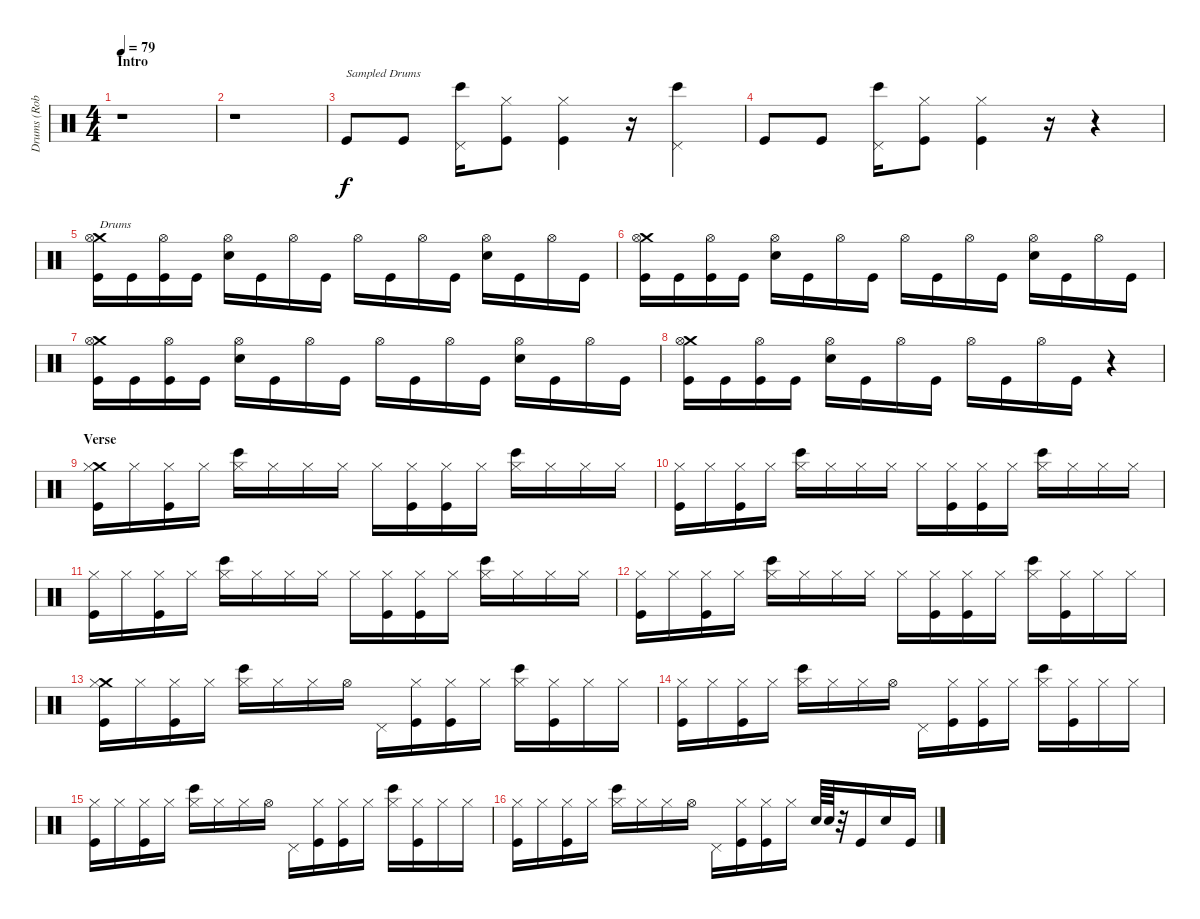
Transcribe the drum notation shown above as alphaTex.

\track ("Drums (Rob Bourdon)" "Drums (Rob") {instrument percussion}
\staff {score}
\articulation defaults
\ts (4 4)
\section ("" "Intro")
\tempo 79
\clef neutral
\ks c
r.1{dy f} |
r.1 |
"Kick (hit)".8{txt "Sampled Drums"} "Kick (hit)".8 ("Pedal Hi-Hat (hit)" "Bongo High (hit)").16 ("Hi-Hat (closed)" "Kick (hit)").8 ("Hi-Hat (closed)" "Kick (hit)").4 r.16 ("Pedal Hi-Hat (hit)" "Bongo High (hit)").4 |
"Kick (hit)".8 "Kick (hit)".8 ("Pedal Hi-Hat (hit)" "Bongo High (hit)").16 ("Hi-Hat (closed)" "Kick (hit)").8 ("Hi-Hat (closed)" "Kick (hit)").4 r.16 r.4 |
("Crash medium (hit)" "Hi-Hat (open)" "Kick (hit)").16{txt "Drums"} "Kick (hit)".16 ("Hi-Hat (open)" "Kick (hit)").16 "Kick (hit)".16 ("Hi-Hat (open)" "Electric Snare (hit)").16 "Kick (hit)".16 "Hi-Hat (open)".16 "Kick (hit)".16 "Hi-Hat (open)".16 "Kick (hit)".16 "Hi-Hat (open)".16 "Kick (hit)".16 ("Hi-Hat (open)" "Electric Snare (hit)").16 "Kick (hit)".16 "Hi-Hat (open)".16 "Kick (hit)".16 |
("Crash medium (hit)" "Hi-Hat (open)" "Kick (hit)").16 "Kick (hit)".16 ("Hi-Hat (open)" "Kick (hit)").16 "Kick (hit)".16 ("Hi-Hat (open)" "Electric Snare (hit)").16 "Kick (hit)".16 "Hi-Hat (open)".16 "Kick (hit)".16 "Hi-Hat (open)".16 "Kick (hit)".16 "Hi-Hat (open)".16 "Kick (hit)".16 ("Hi-Hat (open)" "Electric Snare (hit)").16 "Kick (hit)".16 "Hi-Hat (open)".16 "Kick (hit)".16 |
("Crash medium (hit)" "Hi-Hat (open)" "Kick (hit)").16 "Kick (hit)".16 ("Hi-Hat (open)" "Kick (hit)").16 "Kick (hit)".16 ("Hi-Hat (open)" "Electric Snare (hit)").16 "Kick (hit)".16 "Hi-Hat (open)".16 "Kick (hit)".16 "Hi-Hat (open)".16 "Kick (hit)".16 "Hi-Hat (open)".16 "Kick (hit)".16 ("Hi-Hat (open)" "Electric Snare (hit)").16 "Kick (hit)".16 "Hi-Hat (open)".16 "Kick (hit)".16 |
("Crash medium (hit)" "Hi-Hat (open)" "Kick (hit)").16 "Kick (hit)".16 ("Hi-Hat (open)" "Kick (hit)").16 "Kick (hit)".16 ("Hi-Hat (open)" "Electric Snare (hit)").16 "Kick (hit)".16 "Hi-Hat (open)".16 "Kick (hit)".16 "Hi-Hat (open)".16 "Kick (hit)".16 "Hi-Hat (open)".16 "Kick (hit)".16 r.4 |
\section ("" "Verse")
("Crash medium (hit)" "Hi-Hat (closed)" "Kick (hit)").16 "Hi-Hat (closed)".16 ("Hi-Hat (closed)" "Kick (hit)").16 "Hi-Hat (closed)".16 ("Hi-Hat (closed)" "Bongo High (hit)").16 "Hi-Hat (closed)".16 "Hi-Hat (closed)".16 "Hi-Hat (closed)".16 "Hi-Hat (closed)".16 ("Hi-Hat (closed)" "Kick (hit)").16 ("Hi-Hat (closed)" "Kick (hit)").16 "Hi-Hat (closed)".16 ("Hi-Hat (closed)" "Bongo High (hit)").16 "Hi-Hat (closed)".16 "Hi-Hat (closed)".16 "Hi-Hat (closed)".16 |
("Hi-Hat (closed)" "Kick (hit)").16 "Hi-Hat (closed)".16 ("Hi-Hat (closed)" "Kick (hit)").16 "Hi-Hat (closed)".16 ("Hi-Hat (closed)" "Bongo High (hit)").16 "Hi-Hat (closed)".16 "Hi-Hat (closed)".16 "Hi-Hat (closed)".16 "Hi-Hat (closed)".16 ("Hi-Hat (closed)" "Kick (hit)").16 ("Hi-Hat (closed)" "Kick (hit)").16 "Hi-Hat (closed)".16 ("Hi-Hat (closed)" "Bongo High (hit)").16 "Hi-Hat (closed)".16 "Hi-Hat (closed)".16 "Hi-Hat (closed)".16 |
("Hi-Hat (closed)" "Kick (hit)").16 "Hi-Hat (closed)".16 ("Hi-Hat (closed)" "Kick (hit)").16 "Hi-Hat (closed)".16 ("Hi-Hat (closed)" "Bongo High (hit)").16 "Hi-Hat (closed)".16 "Hi-Hat (closed)".16 "Hi-Hat (closed)".16 "Hi-Hat (closed)".16 ("Hi-Hat (closed)" "Kick (hit)").16 ("Hi-Hat (closed)" "Kick (hit)").16 "Hi-Hat (closed)".16 ("Hi-Hat (closed)" "Bongo High (hit)").16 "Hi-Hat (closed)".16 "Hi-Hat (closed)".16 "Hi-Hat (closed)".16 |
("Hi-Hat (closed)" "Kick (hit)").16 "Hi-Hat (closed)".16 ("Hi-Hat (closed)" "Kick (hit)").16 "Hi-Hat (closed)".16 ("Hi-Hat (closed)" "Bongo High (hit)").16 "Hi-Hat (closed)".16 "Hi-Hat (closed)".16 "Hi-Hat (closed)".16 "Hi-Hat (closed)".16 ("Hi-Hat (closed)" "Kick (hit)").16 ("Hi-Hat (closed)" "Kick (hit)").16 "Hi-Hat (closed)".16 ("Hi-Hat (closed)" "Bongo High (hit)").16 ("Hi-Hat (closed)" "Kick (hit)").16 "Hi-Hat (closed)".16 "Hi-Hat (closed)".16 |
("Crash medium (hit)" "Hi-Hat (closed)" "Kick (hit)").16 "Hi-Hat (closed)".16 ("Hi-Hat (closed)" "Kick (hit)").16 "Hi-Hat (closed)".16 ("Hi-Hat (closed)" "Bongo High (hit)").16 "Hi-Hat (closed)".16 "Hi-Hat (closed)".16 "Hi-Hat (open)".16 "Pedal Hi-Hat (hit)".16 ("Hi-Hat (closed)" "Kick (hit)").16 ("Hi-Hat (closed)" "Kick (hit)").16 "Hi-Hat (closed)".16 ("Hi-Hat (closed)" "Bongo High (hit)").16 ("Hi-Hat (closed)" "Kick (hit)").16 "Hi-Hat (closed)".16 "Hi-Hat (closed)".16 |
("Hi-Hat (closed)" "Kick (hit)").16 "Hi-Hat (closed)".16 ("Hi-Hat (closed)" "Kick (hit)").16 "Hi-Hat (closed)".16 ("Hi-Hat (closed)" "Bongo High (hit)").16 "Hi-Hat (closed)".16 "Hi-Hat (closed)".16 "Hi-Hat (open)".16 "Pedal Hi-Hat (hit)".16 ("Hi-Hat (closed)" "Kick (hit)").16 ("Hi-Hat (closed)" "Kick (hit)").16 "Hi-Hat (closed)".16 ("Hi-Hat (closed)" "Bongo High (hit)").16 ("Hi-Hat (closed)" "Kick (hit)").16 "Hi-Hat (closed)".16 "Hi-Hat (closed)".16 |
("Hi-Hat (closed)" "Kick (hit)").16 "Hi-Hat (closed)".16 ("Hi-Hat (closed)" "Kick (hit)").16 "Hi-Hat (closed)".16 ("Hi-Hat (closed)" "Bongo High (hit)").16 "Hi-Hat (closed)".16 "Hi-Hat (closed)".16 "Hi-Hat (open)".16 "Pedal Hi-Hat (hit)".16 ("Hi-Hat (closed)" "Kick (hit)").16 ("Hi-Hat (closed)" "Kick (hit)").16 "Hi-Hat (closed)".16 ("Hi-Hat (closed)" "Bongo High (hit)").16 ("Hi-Hat (closed)" "Kick (hit)").16 "Hi-Hat (closed)".16 "Hi-Hat (closed)".16 |
("Hi-Hat (closed)" "Kick (hit)").16 "Hi-Hat (closed)".16 ("Hi-Hat (closed)" "Kick (hit)").16 "Hi-Hat (closed)".16 ("Hi-Hat (closed)" "Bongo High (hit)").16 "Hi-Hat (closed)".16 "Hi-Hat (closed)".16 "Hi-Hat (open)".16 "Pedal Hi-Hat (hit)".16 ("Hi-Hat (closed)" "Kick (hit)").16 ("Hi-Hat (closed)" "Kick (hit)").16 "Hi-Hat (closed)".16 "Electric Snare (hit)".64 "Electric Snare (hit)".64 r.32 "Kick (hit)".16 "Electric Snare (hit)".16 "Kick (hit)".16
